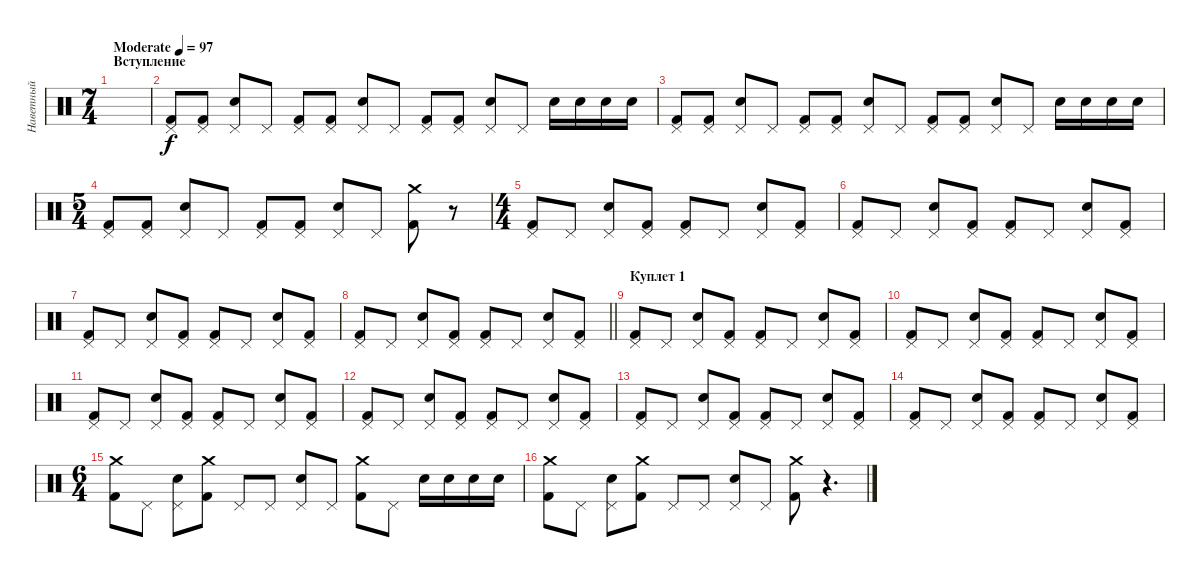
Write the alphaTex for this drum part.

\track ("Наветный" "Наветный") {instrument percussion}
\staff {score}
\articulation defaults
\ts (7 4)
\section ("" "Вступление")
\tempo (97 "Moderate")
\clef neutral
\ks c
|
("Pedal Hi-Hat (hit)" "Kick (hit) 2").8 ("Pedal Hi-Hat (hit)" "Kick (hit) 2").8 ("Pedal Hi-Hat (hit)" "Electric Snare (hit)").8 "Pedal Hi-Hat (hit)".8 ("Pedal Hi-Hat (hit)" "Kick (hit) 2").8 ("Pedal Hi-Hat (hit)" "Kick (hit) 2").8 ("Pedal Hi-Hat (hit)" "Electric Snare (hit)").8 "Pedal Hi-Hat (hit)".8 ("Pedal Hi-Hat (hit)" "Kick (hit) 2").8 ("Pedal Hi-Hat (hit)" "Kick (hit) 2").8 ("Pedal Hi-Hat (hit)" "Electric Snare (hit)").8 "Pedal Hi-Hat (hit)".8 "Electric Snare (hit)".16 "Electric Snare (hit)".16 "Electric Snare (hit)".16 "Electric Snare (hit)".16 |
("Pedal Hi-Hat (hit)" "Kick (hit) 2").8 ("Pedal Hi-Hat (hit)" "Kick (hit) 2").8 ("Pedal Hi-Hat (hit)" "Electric Snare (hit)").8 "Pedal Hi-Hat (hit)".8 ("Pedal Hi-Hat (hit)" "Kick (hit) 2").8 ("Pedal Hi-Hat (hit)" "Kick (hit) 2").8 ("Pedal Hi-Hat (hit)" "Electric Snare (hit)").8 "Pedal Hi-Hat (hit)".8 ("Pedal Hi-Hat (hit)" "Kick (hit) 2").8 ("Pedal Hi-Hat (hit)" "Kick (hit) 2").8 ("Pedal Hi-Hat (hit)" "Electric Snare (hit)").8 "Pedal Hi-Hat (hit)".8 "Electric Snare (hit)".16 "Electric Snare (hit)".16 "Electric Snare (hit)".16 "Electric Snare (hit)".16 |
\ts (5 4)
("Pedal Hi-Hat (hit)" "Kick (hit) 2").8 ("Pedal Hi-Hat (hit)" "Kick (hit) 2").8 ("Pedal Hi-Hat (hit)" "Electric Snare (hit)").8 "Pedal Hi-Hat (hit)".8 ("Pedal Hi-Hat (hit)" "Kick (hit) 2").8 ("Pedal Hi-Hat (hit)" "Kick (hit) 2").8 ("Pedal Hi-Hat (hit)" "Electric Snare (hit)").8 "Pedal Hi-Hat (hit)".8 ("Crash medium (hit)" "Kick (hit) 2").8 r.8 |
\ts (4 4)
("Pedal Hi-Hat (hit)" "Kick (hit) 2").8 "Pedal Hi-Hat (hit)".8 ("Pedal Hi-Hat (hit)" "Electric Snare (hit)").8 ("Pedal Hi-Hat (hit)" "Kick (hit) 2").8 ("Pedal Hi-Hat (hit)" "Kick (hit) 2").8 "Pedal Hi-Hat (hit)".8 ("Pedal Hi-Hat (hit)" "Electric Snare (hit)").8 ("Pedal Hi-Hat (hit)" "Kick (hit) 2").8 |
("Pedal Hi-Hat (hit)" "Kick (hit) 2").8 "Pedal Hi-Hat (hit)".8 ("Pedal Hi-Hat (hit)" "Electric Snare (hit)").8 ("Pedal Hi-Hat (hit)" "Kick (hit) 2").8 ("Pedal Hi-Hat (hit)" "Kick (hit) 2").8 "Pedal Hi-Hat (hit)".8 ("Pedal Hi-Hat (hit)" "Electric Snare (hit)").8 ("Pedal Hi-Hat (hit)" "Kick (hit) 2").8 |
("Pedal Hi-Hat (hit)" "Kick (hit) 2").8 "Pedal Hi-Hat (hit)".8 ("Pedal Hi-Hat (hit)" "Electric Snare (hit)").8 ("Pedal Hi-Hat (hit)" "Kick (hit) 2").8 ("Pedal Hi-Hat (hit)" "Kick (hit) 2").8 "Pedal Hi-Hat (hit)".8 ("Pedal Hi-Hat (hit)" "Electric Snare (hit)").8 ("Pedal Hi-Hat (hit)" "Kick (hit) 2").8 |
\barLineRight lightlight
("Pedal Hi-Hat (hit)" "Kick (hit) 2").8 "Pedal Hi-Hat (hit)".8 ("Pedal Hi-Hat (hit)" "Electric Snare (hit)").8 ("Pedal Hi-Hat (hit)" "Kick (hit) 2").8 ("Pedal Hi-Hat (hit)" "Kick (hit) 2").8 "Pedal Hi-Hat (hit)".8 ("Pedal Hi-Hat (hit)" "Electric Snare (hit)").8 ("Pedal Hi-Hat (hit)" "Kick (hit) 2").8 |
\section ("" "Куплет 1")
("Pedal Hi-Hat (hit)" "Kick (hit) 2").8 "Pedal Hi-Hat (hit)".8 ("Pedal Hi-Hat (hit)" "Electric Snare (hit)").8 ("Pedal Hi-Hat (hit)" "Kick (hit) 2").8 ("Pedal Hi-Hat (hit)" "Kick (hit) 2").8 "Pedal Hi-Hat (hit)".8 ("Pedal Hi-Hat (hit)" "Electric Snare (hit)").8 ("Pedal Hi-Hat (hit)" "Kick (hit) 2").8 |
("Pedal Hi-Hat (hit)" "Kick (hit) 2").8 "Pedal Hi-Hat (hit)".8 ("Pedal Hi-Hat (hit)" "Electric Snare (hit)").8 ("Pedal Hi-Hat (hit)" "Kick (hit) 2").8 ("Pedal Hi-Hat (hit)" "Kick (hit) 2").8 "Pedal Hi-Hat (hit)".8 ("Pedal Hi-Hat (hit)" "Electric Snare (hit)").8 ("Pedal Hi-Hat (hit)" "Kick (hit) 2").8 |
("Pedal Hi-Hat (hit)" "Kick (hit) 2").8 "Pedal Hi-Hat (hit)".8 ("Pedal Hi-Hat (hit)" "Electric Snare (hit)").8 ("Pedal Hi-Hat (hit)" "Kick (hit) 2").8 ("Pedal Hi-Hat (hit)" "Kick (hit) 2").8 "Pedal Hi-Hat (hit)".8 ("Pedal Hi-Hat (hit)" "Electric Snare (hit)").8 ("Pedal Hi-Hat (hit)" "Kick (hit) 2").8 |
("Pedal Hi-Hat (hit)" "Kick (hit) 2").8 "Pedal Hi-Hat (hit)".8 ("Pedal Hi-Hat (hit)" "Electric Snare (hit)").8 ("Pedal Hi-Hat (hit)" "Kick (hit) 2").8 ("Pedal Hi-Hat (hit)" "Kick (hit) 2").8 "Pedal Hi-Hat (hit)".8 ("Pedal Hi-Hat (hit)" "Electric Snare (hit)").8 ("Pedal Hi-Hat (hit)" "Kick (hit) 2").8 |
("Pedal Hi-Hat (hit)" "Kick (hit) 2").8 "Pedal Hi-Hat (hit)".8 ("Pedal Hi-Hat (hit)" "Electric Snare (hit)").8 ("Pedal Hi-Hat (hit)" "Kick (hit) 2").8 ("Pedal Hi-Hat (hit)" "Kick (hit) 2").8 "Pedal Hi-Hat (hit)".8 ("Pedal Hi-Hat (hit)" "Electric Snare (hit)").8 ("Pedal Hi-Hat (hit)" "Kick (hit) 2").8 |
("Pedal Hi-Hat (hit)" "Kick (hit) 2").8 "Pedal Hi-Hat (hit)".8 ("Pedal Hi-Hat (hit)" "Electric Snare (hit)").8 ("Pedal Hi-Hat (hit)" "Kick (hit) 2").8 ("Pedal Hi-Hat (hit)" "Kick (hit) 2").8 "Pedal Hi-Hat (hit)".8 ("Pedal Hi-Hat (hit)" "Electric Snare (hit)").8 ("Pedal Hi-Hat (hit)" "Kick (hit) 2").8 |
\ts (6 4)
("Crash medium (hit)" "Kick (hit) 2").8 "Pedal Hi-Hat (hit)".8 ("Pedal Hi-Hat (hit)" "Electric Snare (hit)").8 ("Crash medium (hit)" "Kick (hit) 2").8 "Pedal Hi-Hat (hit)".8 "Pedal Hi-Hat (hit)".8 ("Pedal Hi-Hat (hit)" "Electric Snare (hit)").8 "Pedal Hi-Hat (hit)".8 ("Crash medium (hit)" "Kick (hit) 2").8 "Pedal Hi-Hat (hit)".8 "Electric Snare (hit)".16 "Electric Snare (hit)".16 "Electric Snare (hit)".16 "Electric Snare (hit)".16 |
("Crash medium (hit)" "Kick (hit) 2").8 "Pedal Hi-Hat (hit)".8 ("Pedal Hi-Hat (hit)" "Electric Snare (hit)").8 ("Crash medium (hit)" "Kick (hit) 2").8 "Pedal Hi-Hat (hit)".8 "Pedal Hi-Hat (hit)".8 ("Pedal Hi-Hat (hit)" "Electric Snare (hit)").8 "Pedal Hi-Hat (hit)".8 ("Crash medium (hit)" "Kick (hit) 2").8 r.4{d}
